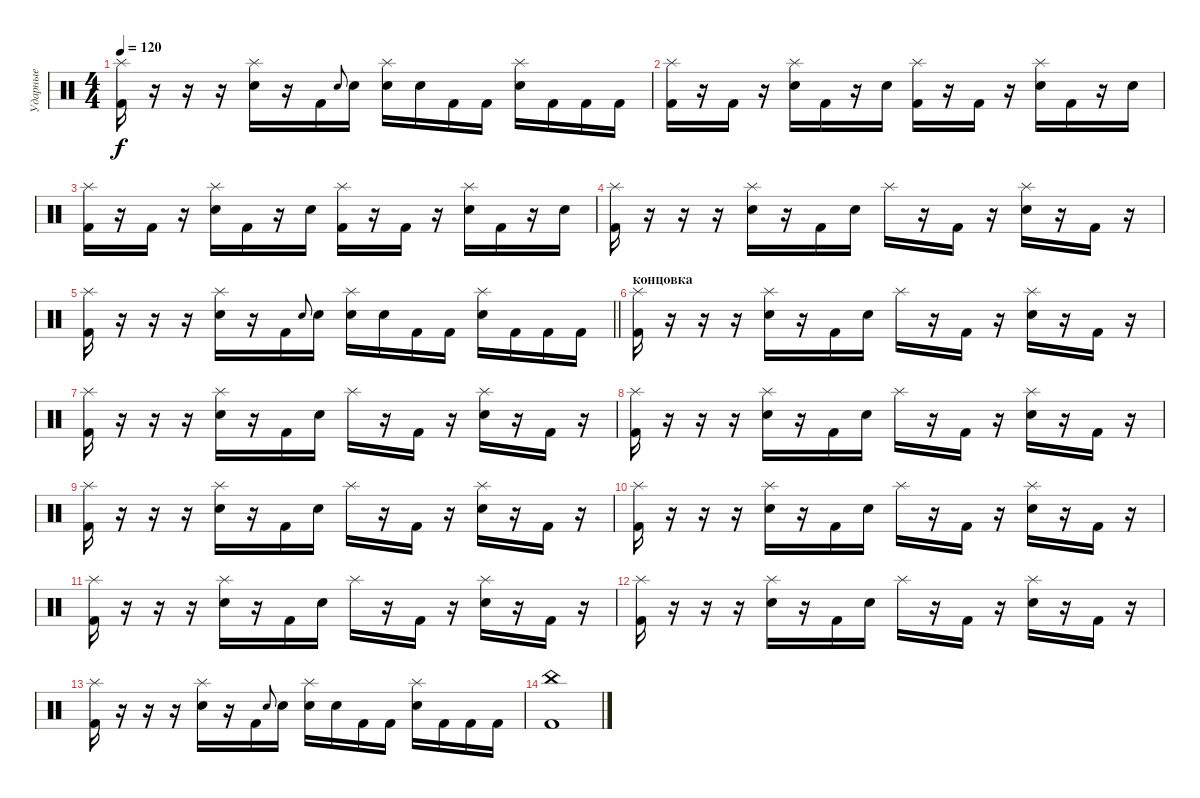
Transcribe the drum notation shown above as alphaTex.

\track ("Ударные" "Ударные") {instrument percussion}
\staff {score}
\articulation defaults
\ts (4 4)
\tempo 120
\clef neutral
\ks c
("Splash (hit)" "Kick (hit) 2").16{dy f} r.16 r.16 r.16 ("Splash (hit)" "Electric Snare (hit)").16 r.16 "Kick (hit) 2".16 "Electric Snare (hit)".8{gr onbeat} "Electric Snare (hit)".16 ("Splash (hit)" "Electric Snare (hit)").16 "Electric Snare (hit)".16 "Kick (hit) 2".16 "Kick (hit) 2".16 ("Splash (hit)" "Electric Snare (hit)").16 "Kick (hit) 2".16 "Kick (hit) 2".16 "Kick (hit) 2".16 |
("Splash (hit)" "Kick (hit) 2").16 r.16 "Kick (hit) 2".16 r.16 ("Splash (hit)" "Electric Snare (hit)").16 "Kick (hit) 2".16 r.16 "Electric Snare (hit)".16 ("Splash (hit)" "Kick (hit) 2").16 r.16 "Kick (hit) 2".16 r.16 ("Splash (hit)" "Electric Snare (hit)").16 "Kick (hit) 2".16 r.16 "Electric Snare (hit)".16 |
("Splash (hit)" "Kick (hit) 2").16 r.16 "Kick (hit) 2".16 r.16 ("Splash (hit)" "Electric Snare (hit)").16 "Kick (hit) 2".16 r.16 "Electric Snare (hit)".16 ("Splash (hit)" "Kick (hit) 2").16 r.16 "Kick (hit) 2".16 r.16 ("Splash (hit)" "Electric Snare (hit)").16 "Kick (hit) 2".16 r.16 "Electric Snare (hit)".16 |
("Splash (hit)" "Kick (hit) 2").16 r.16 r.16 r.16 ("Splash (hit)" "Electric Snare (hit)").16 r.16 "Kick (hit) 2".16 "Electric Snare (hit)".16 "Splash (hit)".16 r.16 "Kick (hit) 2".16 r.16 ("Splash (hit)" "Electric Snare (hit)").16 r.16 "Kick (hit) 2".16 r.16 |
\barLineRight lightlight
("Splash (hit)" "Kick (hit) 2").16 r.16 r.16 r.16 ("Splash (hit)" "Electric Snare (hit)").16 r.16 "Kick (hit) 2".16 "Electric Snare (hit)".8{gr onbeat} "Electric Snare (hit)".16 ("Splash (hit)" "Electric Snare (hit)").16 "Electric Snare (hit)".16 "Kick (hit) 2".16 "Kick (hit) 2".16 ("Splash (hit)" "Electric Snare (hit)").16 "Kick (hit) 2".16 "Kick (hit) 2".16 "Kick (hit) 2".16 |
\section ("" "концовка")
("Splash (hit)" "Kick (hit) 2").16 r.16 r.16 r.16 ("Splash (hit)" "Electric Snare (hit)").16 r.16 "Kick (hit) 2".16 "Electric Snare (hit)".16 "Splash (hit)".16 r.16 "Kick (hit) 2".16 r.16 ("Splash (hit)" "Electric Snare (hit)").16 r.16 "Kick (hit) 2".16 r.16 |
("Splash (hit)" "Kick (hit) 2").16 r.16 r.16 r.16 ("Splash (hit)" "Electric Snare (hit)").16 r.16 "Kick (hit) 2".16 "Electric Snare (hit)".16 "Splash (hit)".16 r.16 "Kick (hit) 2".16 r.16 ("Splash (hit)" "Electric Snare (hit)").16 r.16 "Kick (hit) 2".16 r.16 |
("Splash (hit)" "Kick (hit) 2").16 r.16 r.16 r.16 ("Splash (hit)" "Electric Snare (hit)").16 r.16 "Kick (hit) 2".16 "Electric Snare (hit)".16 "Splash (hit)".16 r.16 "Kick (hit) 2".16 r.16 ("Splash (hit)" "Electric Snare (hit)").16 r.16 "Kick (hit) 2".16 r.16 |
("Splash (hit)" "Kick (hit) 2").16 r.16 r.16 r.16 ("Splash (hit)" "Electric Snare (hit)").16 r.16 "Kick (hit) 2".16 "Electric Snare (hit)".16 "Splash (hit)".16 r.16 "Kick (hit) 2".16 r.16 ("Splash (hit)" "Electric Snare (hit)").16 r.16 "Kick (hit) 2".16 r.16 |
("Splash (hit)" "Kick (hit) 2").16 r.16 r.16 r.16 ("Splash (hit)" "Electric Snare (hit)").16 r.16 "Kick (hit) 2".16 "Electric Snare (hit)".16 "Splash (hit)".16 r.16 "Kick (hit) 2".16 r.16 ("Splash (hit)" "Electric Snare (hit)").16 r.16 "Kick (hit) 2".16 r.16 |
("Splash (hit)" "Kick (hit) 2").16 r.16 r.16 r.16 ("Splash (hit)" "Electric Snare (hit)").16 r.16 "Kick (hit) 2".16 "Electric Snare (hit)".16 "Splash (hit)".16 r.16 "Kick (hit) 2".16 r.16 ("Splash (hit)" "Electric Snare (hit)").16 r.16 "Kick (hit) 2".16 r.16 |
("Splash (hit)" "Kick (hit) 2").16 r.16 r.16 r.16 ("Splash (hit)" "Electric Snare (hit)").16 r.16 "Kick (hit) 2".16 "Electric Snare (hit)".16 "Splash (hit)".16 r.16 "Kick (hit) 2".16 r.16 ("Splash (hit)" "Electric Snare (hit)").16 r.16 "Kick (hit) 2".16 r.16 |
("Splash (hit)" "Kick (hit) 2").16 r.16 r.16 r.16 ("Splash (hit)" "Electric Snare (hit)").16 r.16 "Kick (hit) 2".16 "Electric Snare (hit)".8{gr onbeat} "Electric Snare (hit)".16 ("Splash (hit)" "Electric Snare (hit)").16 "Electric Snare (hit)".16 "Kick (hit) 2".16 "Kick (hit) 2".16 ("Splash (hit)" "Electric Snare (hit)").16 "Kick (hit) 2".16 "Kick (hit) 2".16 "Kick (hit) 2".16 |
("China (hit)" "Kick (hit) 2").1
